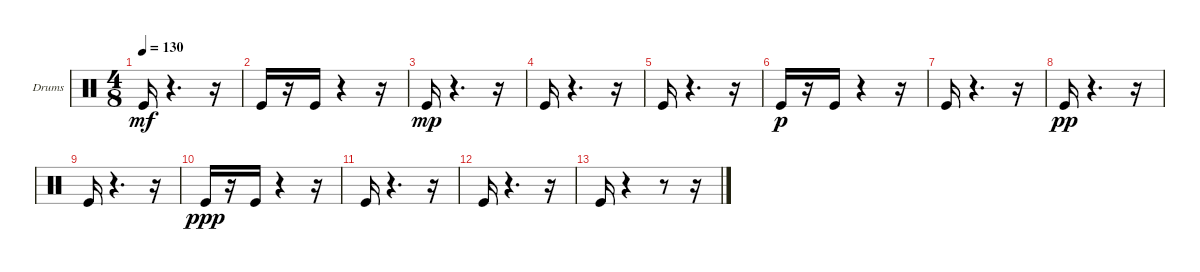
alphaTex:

\bracketExtendMode groupsimilarinstruments
\firstSystemTrackNameOrientation horizontal
\otherSystemsTrackNameOrientation horizontal
\track ("Ударные" "Drums") {instrument percussion}
\staff {score}
\articulation defaults
\ts (4 8)
\tempo 130
\clef neutral
\ks c "Kick (hit)".16{dy mf}
r.4{d} r.16 |
"Kick (hit)".16 r.16 "Kick (hit)".16 r.4 r.16 |
"Kick (hit)".16{dy mp} r.4{d} r.16 |
"Kick (hit)".16 r.4{d} r.16 |
"Kick (hit)".16 r.4{d} r.16 |
"Kick (hit)".16{dy p} r.16 "Kick (hit)".16 r.4 r.16 |
"Kick (hit)".16 r.4{d} r.16 |
"Kick (hit)".16{dy pp} r.4{d} r.16 |
"Kick (hit)".16 r.4{d} r.16 |
"Kick (hit)".16{dy ppp} r.16 "Kick (hit)".16 r.4 r.16 |
"Kick (hit)".16 r.4{d} r.16 |
"Kick (hit)".16 r.4{d} r.16 |
"Kick (hit)".16 r.4 r.8 r.16
